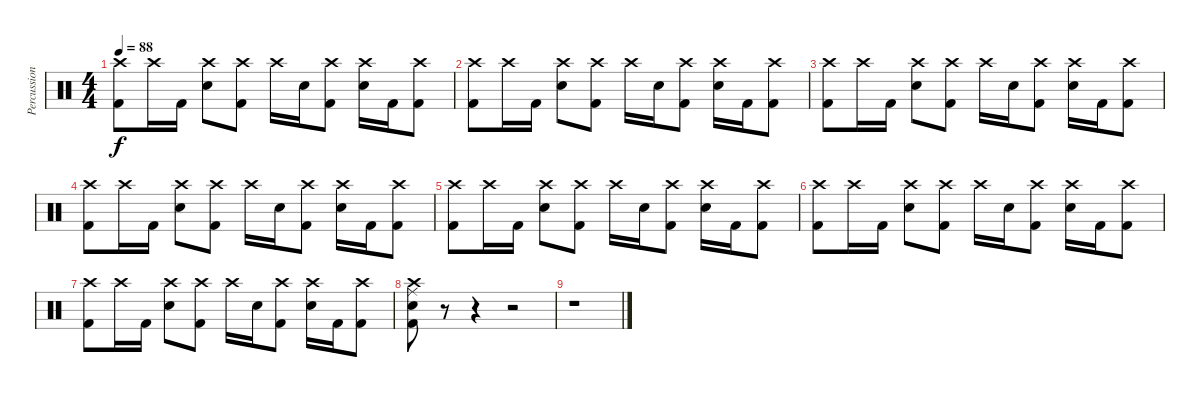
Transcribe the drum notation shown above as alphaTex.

\track ("Percussion" "Percussion") {instrument percussion}
\staff {score}
\articulation defaults
\ts (4 4)
\tempo 88
\clef neutral
\ks c
("Crash high (hit)" "Kick (hit) 2").8{dy f} "Crash high (hit)".16 "Kick (hit) 2".16 ("Crash high (hit)" "Snare (hit) 2").8 ("Crash high (hit)" "Kick (hit) 2").8 "Crash high (hit)".16 "Snare (hit) 2".16 ("Crash high (hit)" "Kick (hit) 2").8 ("Crash high (hit)" "Snare (hit) 2").16 "Kick (hit) 2".16 ("Crash high (hit)" "Kick (hit) 2").8 |
("Crash high (hit)" "Kick (hit) 2").8 "Crash high (hit)".16 "Kick (hit) 2".16 ("Crash high (hit)" "Snare (hit) 2").8 ("Crash high (hit)" "Kick (hit) 2").8 "Crash high (hit)".16 "Snare (hit) 2".16 ("Crash high (hit)" "Kick (hit) 2").8 ("Crash high (hit)" "Snare (hit) 2").16 "Kick (hit) 2".16 ("Crash high (hit)" "Kick (hit) 2").8 |
("Crash high (hit)" "Kick (hit) 2").8 "Crash high (hit)".16 "Kick (hit) 2".16 ("Crash high (hit)" "Snare (hit) 2").8 ("Crash high (hit)" "Kick (hit) 2").8 "Crash high (hit)".16 "Snare (hit) 2".16 ("Crash high (hit)" "Kick (hit) 2").8 ("Crash high (hit)" "Snare (hit) 2").16 "Kick (hit) 2".16 ("Crash high (hit)" "Kick (hit) 2").8 |
("Crash high (hit)" "Kick (hit) 2").8 "Crash high (hit)".16 "Kick (hit) 2".16 ("Crash high (hit)" "Snare (hit) 2").8 ("Crash high (hit)" "Kick (hit) 2").8 "Crash high (hit)".16 "Snare (hit) 2".16 ("Crash high (hit)" "Kick (hit) 2").8 ("Crash high (hit)" "Snare (hit) 2").16 "Kick (hit) 2".16 ("Crash high (hit)" "Kick (hit) 2").8 |
("Crash high (hit)" "Kick (hit) 2").8 "Crash high (hit)".16 "Kick (hit) 2".16 ("Crash high (hit)" "Snare (hit) 2").8 ("Crash high (hit)" "Kick (hit) 2").8 "Crash high (hit)".16 "Snare (hit) 2".16 ("Crash high (hit)" "Kick (hit) 2").8 ("Crash high (hit)" "Snare (hit) 2").16 "Kick (hit) 2".16 ("Crash high (hit)" "Kick (hit) 2").8 |
("Crash high (hit)" "Kick (hit) 2").8 "Crash high (hit)".16 "Kick (hit) 2".16 ("Crash high (hit)" "Snare (hit) 2").8 ("Crash high (hit)" "Kick (hit) 2").8 "Crash high (hit)".16 "Snare (hit) 2".16 ("Crash high (hit)" "Kick (hit) 2").8 ("Crash high (hit)" "Snare (hit) 2").16 "Kick (hit) 2".16 ("Crash high (hit)" "Kick (hit) 2").8 |
("Crash high (hit)" "Kick (hit) 2").8 "Crash high (hit)".16 "Kick (hit) 2".16 ("Crash high (hit)" "Snare (hit) 2").8 ("Crash high (hit)" "Kick (hit) 2").8 "Crash high (hit)".16 "Snare (hit) 2".16 ("Crash high (hit)" "Kick (hit) 2").8 ("Crash high (hit)" "Snare (hit) 2").16 "Kick (hit) 2".16 ("Crash high (hit)" "Kick (hit) 2").8 |
("Ride (middle)" "Crash high (hit)" "Snare (hit) 2" "Kick (hit) 2").8 r.8 r.4 r.2 |
r.1
